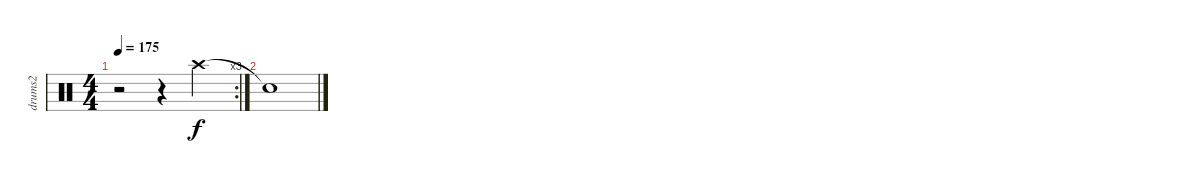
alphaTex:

\track ("drums2" "drums2") {instrument percussion}
\staff {score}
\articulation defaults
\rc 3
\ts (4 4)
\tempo 175
\clef neutral
\ks c
r.2{dy f} r.4 "Crash high (hit)".4 |
"Snare (hit)"{t}.1
